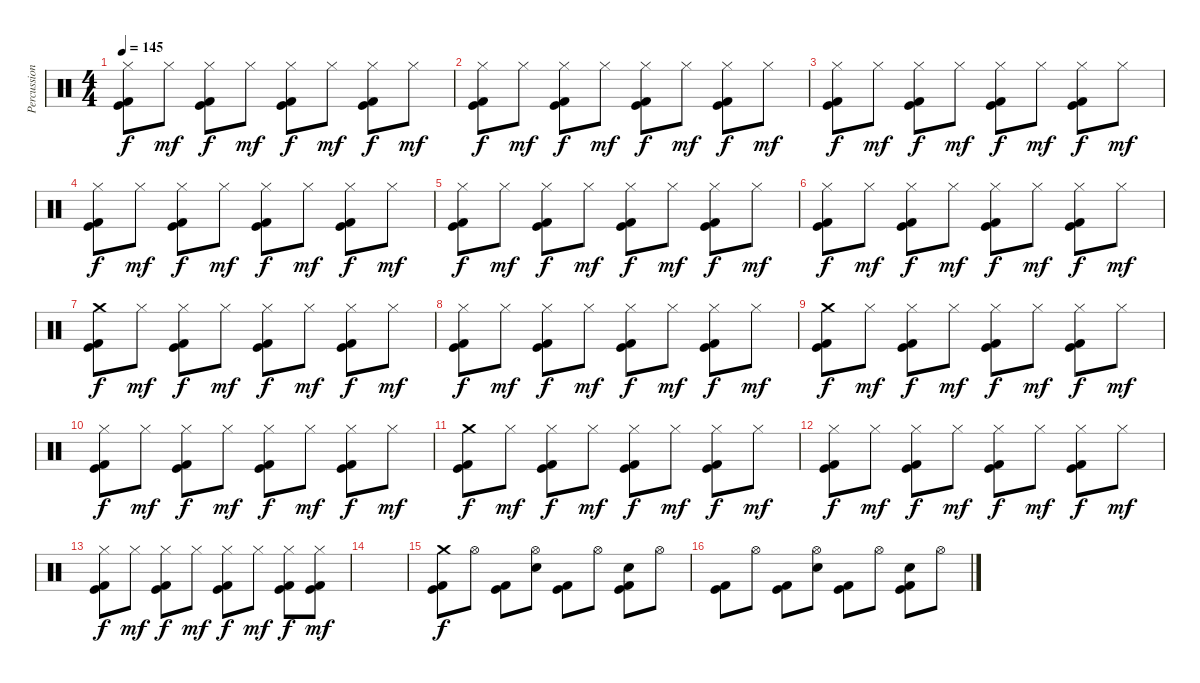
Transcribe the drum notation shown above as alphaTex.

\track ("Percussion" "Percussion") {instrument percussion}
\staff {score}
\articulation defaults
\ts (4 4)
\tempo 145
\clef neutral
\ks c
("Hi-Hat (closed)" "Kick (hit)" "Kick (hit) 2").8{dy f} "Hi-Hat (closed)".8{dy mf} ("Hi-Hat (closed)" "Kick (hit)" "Kick (hit) 2").8{dy f} "Hi-Hat (closed)".8{dy mf} ("Hi-Hat (closed)" "Kick (hit)" "Kick (hit) 2").8{dy f} "Hi-Hat (closed)".8{dy mf} ("Hi-Hat (closed)" "Kick (hit)" "Kick (hit) 2").8{dy f} "Hi-Hat (closed)".8{dy mf} |
("Hi-Hat (closed)" "Kick (hit)" "Kick (hit) 2").8{dy f} "Hi-Hat (closed)".8{dy mf} ("Hi-Hat (closed)" "Kick (hit)" "Kick (hit) 2").8{dy f} "Hi-Hat (closed)".8{dy mf} ("Hi-Hat (closed)" "Kick (hit)" "Kick (hit) 2").8{dy f} "Hi-Hat (closed)".8{dy mf} ("Hi-Hat (closed)" "Kick (hit)" "Kick (hit) 2").8{dy f} "Hi-Hat (closed)".8{dy mf} |
("Hi-Hat (closed)" "Kick (hit)" "Kick (hit) 2").8{dy f} "Hi-Hat (closed)".8{dy mf} ("Hi-Hat (closed)" "Kick (hit)" "Kick (hit) 2").8{dy f} "Hi-Hat (closed)".8{dy mf} ("Hi-Hat (closed)" "Kick (hit)" "Kick (hit) 2").8{dy f} "Hi-Hat (closed)".8{dy mf} ("Hi-Hat (closed)" "Kick (hit)" "Kick (hit) 2").8{dy f} "Hi-Hat (closed)".8{dy mf} |
("Hi-Hat (closed)" "Kick (hit)" "Kick (hit) 2").8{dy f} "Hi-Hat (closed)".8{dy mf} ("Hi-Hat (closed)" "Kick (hit)" "Kick (hit) 2").8{dy f} "Hi-Hat (closed)".8{dy mf} ("Hi-Hat (closed)" "Kick (hit)" "Kick (hit) 2").8{dy f} "Hi-Hat (closed)".8{dy mf} ("Hi-Hat (closed)" "Kick (hit)" "Kick (hit) 2").8{dy f} "Hi-Hat (closed)".8{dy mf} |
("Hi-Hat (closed)" "Kick (hit)" "Kick (hit) 2").8{dy f} "Hi-Hat (closed)".8{dy mf} ("Hi-Hat (closed)" "Kick (hit)" "Kick (hit) 2").8{dy f} "Hi-Hat (closed)".8{dy mf} ("Hi-Hat (closed)" "Kick (hit)" "Kick (hit) 2").8{dy f} "Hi-Hat (closed)".8{dy mf} ("Hi-Hat (closed)" "Kick (hit)" "Kick (hit) 2").8{dy f} "Hi-Hat (closed)".8{dy mf} |
("Hi-Hat (closed)" "Kick (hit)" "Kick (hit) 2").8{dy f} "Hi-Hat (closed)".8{dy mf} ("Hi-Hat (closed)" "Kick (hit)" "Kick (hit) 2").8{dy f} "Hi-Hat (closed)".8{dy mf} ("Hi-Hat (closed)" "Kick (hit)" "Kick (hit) 2").8{dy f} "Hi-Hat (closed)".8{dy mf} ("Hi-Hat (closed)" "Kick (hit)" "Kick (hit) 2").8{dy f} "Hi-Hat (closed)".8{dy mf} |
("Crash medium (hit)" "Kick (hit)" "Kick (hit) 2").8{dy f} "Hi-Hat (closed)".8{dy mf} ("Hi-Hat (closed)" "Kick (hit)" "Kick (hit) 2").8{dy f} "Hi-Hat (closed)".8{dy mf} ("Hi-Hat (closed)" "Kick (hit)" "Kick (hit) 2").8{dy f} "Hi-Hat (closed)".8{dy mf} ("Hi-Hat (closed)" "Kick (hit)" "Kick (hit) 2").8{dy f} "Hi-Hat (closed)".8{dy mf} |
("Hi-Hat (closed)" "Kick (hit)" "Kick (hit) 2").8{dy f} "Hi-Hat (closed)".8{dy mf} ("Hi-Hat (closed)" "Kick (hit)" "Kick (hit) 2").8{dy f} "Hi-Hat (closed)".8{dy mf} ("Hi-Hat (closed)" "Kick (hit)" "Kick (hit) 2").8{dy f} "Hi-Hat (closed)".8{dy mf} ("Hi-Hat (closed)" "Kick (hit)" "Kick (hit) 2").8{dy f} "Hi-Hat (closed)".8{dy mf} |
("Crash medium (hit)" "Kick (hit)" "Kick (hit) 2").8{dy f} "Hi-Hat (closed)".8{dy mf} ("Hi-Hat (closed)" "Kick (hit)" "Kick (hit) 2").8{dy f} "Hi-Hat (closed)".8{dy mf} ("Hi-Hat (closed)" "Kick (hit)" "Kick (hit) 2").8{dy f} "Hi-Hat (closed)".8{dy mf} ("Hi-Hat (closed)" "Kick (hit)" "Kick (hit) 2").8{dy f} "Hi-Hat (closed)".8{dy mf} |
("Hi-Hat (closed)" "Kick (hit)" "Kick (hit) 2").8{dy f} "Hi-Hat (closed)".8{dy mf} ("Hi-Hat (closed)" "Kick (hit)" "Kick (hit) 2").8{dy f} "Hi-Hat (closed)".8{dy mf} ("Hi-Hat (closed)" "Kick (hit)" "Kick (hit) 2").8{dy f} "Hi-Hat (closed)".8{dy mf} ("Hi-Hat (closed)" "Kick (hit)" "Kick (hit) 2").8{dy f} "Hi-Hat (closed)".8{dy mf} |
("Crash medium (hit)" "Kick (hit)" "Kick (hit) 2").8{dy f} "Hi-Hat (closed)".8{dy mf} ("Hi-Hat (closed)" "Kick (hit)" "Kick (hit) 2").8{dy f} "Hi-Hat (closed)".8{dy mf} ("Hi-Hat (closed)" "Kick (hit)" "Kick (hit) 2").8{dy f} "Hi-Hat (closed)".8{dy mf} ("Hi-Hat (closed)" "Kick (hit)" "Kick (hit) 2").8{dy f} "Hi-Hat (closed)".8{dy mf} |
("Hi-Hat (closed)" "Kick (hit)" "Kick (hit) 2").8{dy f} "Hi-Hat (closed)".8{dy mf} ("Hi-Hat (closed)" "Kick (hit)" "Kick (hit) 2").8{dy f} "Hi-Hat (closed)".8{dy mf} ("Hi-Hat (closed)" "Kick (hit)" "Kick (hit) 2").8{dy f} "Hi-Hat (closed)".8{dy mf} ("Hi-Hat (closed)" "Kick (hit)" "Kick (hit) 2").8{dy f} "Hi-Hat (closed)".8{dy mf} |
("Hi-Hat (closed)" "Kick (hit)" "Kick (hit) 2").8{dy f} "Hi-Hat (closed)".8{dy mf} ("Hi-Hat (closed)" "Kick (hit)" "Kick (hit) 2").8{dy f} "Hi-Hat (closed)".8{dy mf} ("Hi-Hat (closed)" "Kick (hit)" "Kick (hit) 2").8{dy f} "Hi-Hat (closed)".8{dy mf} ("Hi-Hat (closed)" "Kick (hit)" "Kick (hit) 2").8{dy f} ("Hi-Hat (closed)" "Kick (hit)" "Kick (hit) 2").8{dy mf} |
|
("Crash medium (hit)" "Kick (hit)" "Kick (hit) 2").8{dy f} "Hi-Hat (open)".8 ("Kick (hit)" "Kick (hit) 2").8 ("Hi-Hat (open)" "Snare (hit) 2").8 ("Kick (hit)" "Kick (hit) 2").8 "Hi-Hat (open)".8 ("Electric Snare (hit)" "Kick (hit)" "Kick (hit) 2").8 "Hi-Hat (open)".8 |
("Kick (hit)" "Kick (hit) 2").8 "Hi-Hat (open)".8 ("Kick (hit)" "Kick (hit) 2").8 ("Hi-Hat (open)" "Snare (hit) 2").8 ("Kick (hit)" "Kick (hit) 2").8 "Hi-Hat (open)".8 ("Electric Snare (hit)" "Kick (hit)" "Kick (hit) 2").8 "Hi-Hat (open)".8
